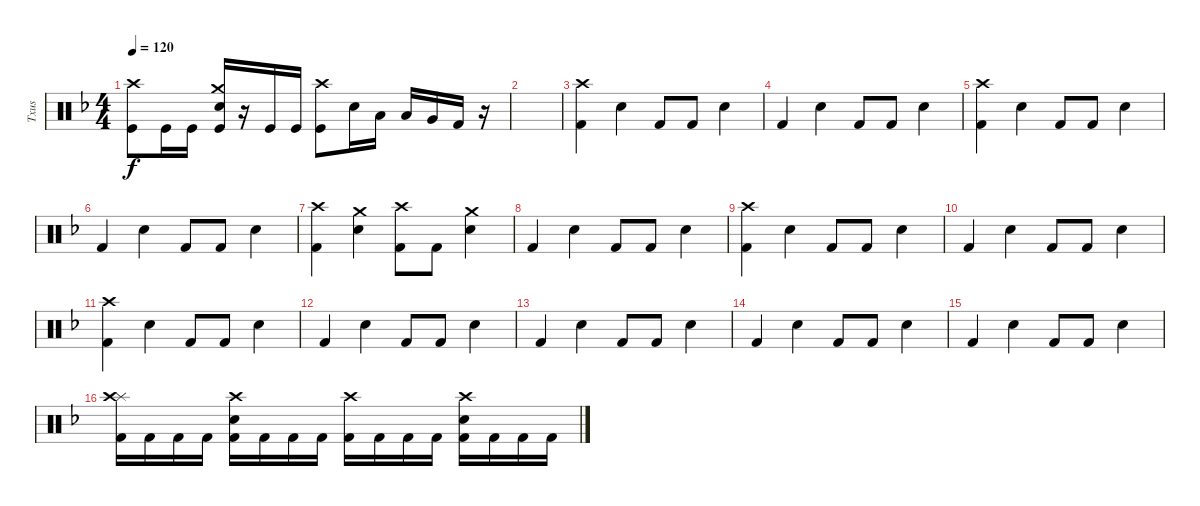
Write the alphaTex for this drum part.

\track ("Txus" "Txus") {instrument percussion}
\staff {score}
\articulation defaults
\ts (4 4)
\tempo 120
\clef neutral
\ks dminor
("Kick (hit)" "Crash high (hit)").8{dy f} "Kick (hit)".16 "Kick (hit)".16 ("Kick (hit)" "Crash medium (hit)" "Electric Snare (hit)").16 r.16 "Kick (hit)".16 "Kick (hit)".16 ("Kick (hit)" "Crash high (hit)").8 "Electric Snare (hit)".16 "Low Tom (hit)".16 "Low Tom (hit)".16 "Very Low Tom (hit)".16 "Kick (hit) 2".16 r.16 |
|
("Kick (hit) 2" "Crash high (hit)").4 "Electric Snare (hit)".4 "Kick (hit) 2".8 "Kick (hit) 2".8 "Electric Snare (hit)".4 |
"Kick (hit) 2".4 "Electric Snare (hit)".4 "Kick (hit) 2".8 "Kick (hit) 2".8 "Electric Snare (hit)".4 |
("Kick (hit) 2" "Crash high (hit)").4 "Electric Snare (hit)".4 "Kick (hit) 2".8 "Kick (hit) 2".8 "Electric Snare (hit)".4 |
"Kick (hit) 2".4 "Electric Snare (hit)".4 "Kick (hit) 2".8 "Kick (hit) 2".8 "Electric Snare (hit)".4 |
("Kick (hit) 2" "Crash high (hit)").4 ("Electric Snare (hit)" "Crash medium (hit)").4 ("Kick (hit) 2" "Crash high (hit)").8 "Kick (hit) 2".8 ("Electric Snare (hit)" "Crash medium (hit)").4 |
"Kick (hit) 2".4 "Electric Snare (hit)".4 "Kick (hit) 2".8 "Kick (hit) 2".8 "Electric Snare (hit)".4 |
("Kick (hit) 2" "Crash high (hit)").4 "Electric Snare (hit)".4 "Kick (hit) 2".8 "Kick (hit) 2".8 "Electric Snare (hit)".4 |
"Kick (hit) 2".4 "Electric Snare (hit)".4 "Kick (hit) 2".8 "Kick (hit) 2".8 "Electric Snare (hit)".4 |
("Kick (hit) 2" "Crash high (hit)").4 "Electric Snare (hit)".4 "Kick (hit) 2".8 "Kick (hit) 2".8 "Electric Snare (hit)".4 |
"Kick (hit) 2".4 "Electric Snare (hit)".4 "Kick (hit) 2".8 "Kick (hit) 2".8 "Electric Snare (hit)".4 |
"Kick (hit) 2".4 "Electric Snare (hit)".4 "Kick (hit) 2".8 "Kick (hit) 2".8 "Electric Snare (hit)".4 |
"Kick (hit) 2".4 "Electric Snare (hit)".4 "Kick (hit) 2".8 "Kick (hit) 2".8 "Electric Snare (hit)".4 |
"Kick (hit) 2".4 "Electric Snare (hit)".4 "Kick (hit) 2".8 "Kick (hit) 2".8 "Electric Snare (hit)".4 |
("Kick (hit) 2" "Splash (hit)" "Crash high (hit)").16 "Kick (hit) 2".16 "Kick (hit) 2".16 "Kick (hit) 2".16 ("Kick (hit) 2" "Electric Snare (hit)" "Crash high (hit)").16 "Kick (hit) 2".16 "Kick (hit) 2".16 "Kick (hit) 2".16 ("Kick (hit) 2" "Crash high (hit)").16 "Kick (hit) 2".16 "Kick (hit) 2".16 "Kick (hit) 2".16 ("Kick (hit) 2" "Electric Snare (hit)" "Crash high (hit)").16 "Kick (hit) 2".16 "Kick (hit) 2".16 "Kick (hit) 2".16
